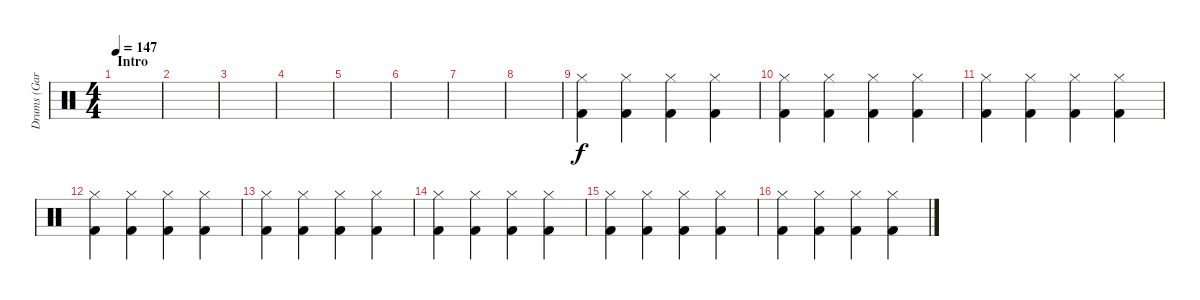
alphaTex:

\track ("Drums (Gar Samuelson)" "Drums (Gar") {instrument percussion}
\staff {score}
\articulation defaults
\ts (4 4)
\section ("" "Intro")
\tempo 147
\clef neutral
\ks c
|
|
|
|
|
|
|
|
("Hi-Hat (closed)" "Kick (hit) 2").4 ("Hi-Hat (closed)" "Kick (hit) 2").4 ("Hi-Hat (closed)" "Kick (hit) 2").4 ("Hi-Hat (closed)" "Kick (hit) 2").4 |
("Hi-Hat (closed)" "Kick (hit) 2").4 ("Hi-Hat (closed)" "Kick (hit) 2").4 ("Hi-Hat (closed)" "Kick (hit) 2").4 ("Hi-Hat (closed)" "Kick (hit) 2").4 |
("Hi-Hat (closed)" "Kick (hit) 2").4 ("Hi-Hat (closed)" "Kick (hit) 2").4 ("Hi-Hat (closed)" "Kick (hit) 2").4 ("Hi-Hat (closed)" "Kick (hit) 2").4 |
("Hi-Hat (closed)" "Kick (hit) 2").4 ("Hi-Hat (closed)" "Kick (hit) 2").4 ("Hi-Hat (closed)" "Kick (hit) 2").4 ("Hi-Hat (closed)" "Kick (hit) 2").4 |
("Hi-Hat (closed)" "Kick (hit) 2").4 ("Hi-Hat (closed)" "Kick (hit) 2").4 ("Hi-Hat (closed)" "Kick (hit) 2").4 ("Hi-Hat (closed)" "Kick (hit) 2").4 |
("Hi-Hat (closed)" "Kick (hit) 2").4 ("Hi-Hat (closed)" "Kick (hit) 2").4 ("Hi-Hat (closed)" "Kick (hit) 2").4 ("Hi-Hat (closed)" "Kick (hit) 2").4 |
("Hi-Hat (closed)" "Kick (hit) 2").4 ("Hi-Hat (closed)" "Kick (hit) 2").4 ("Hi-Hat (closed)" "Kick (hit) 2").4 ("Hi-Hat (closed)" "Kick (hit) 2").4 |
("Hi-Hat (closed)" "Kick (hit) 2").4 ("Hi-Hat (closed)" "Kick (hit) 2").4 ("Hi-Hat (closed)" "Kick (hit) 2").4 ("Hi-Hat (closed)" "Kick (hit) 2").4
